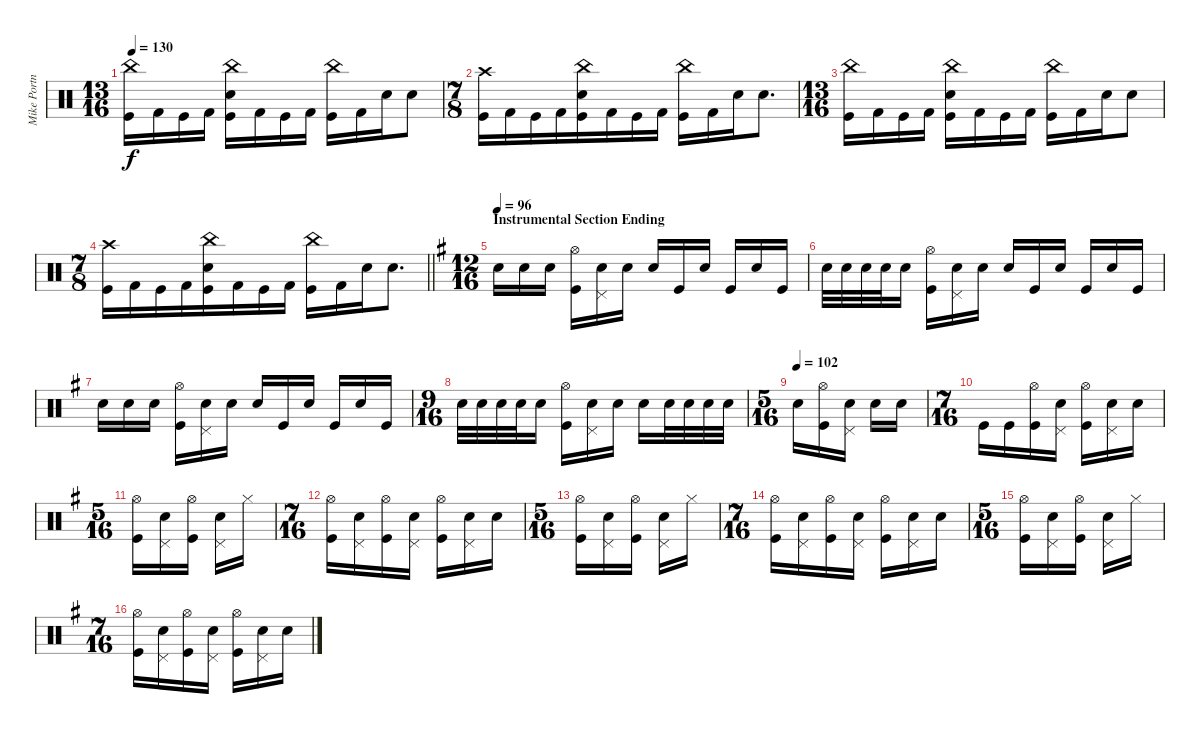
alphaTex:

\track ("Mike Portnoy" "Mike Portn") {instrument percussion}
\staff {score}
\articulation defaults
\ts (13 16)
\tempo 130
\clef neutral
\ks aminor
("China (hit)" "Kick (hit)").16{dy f} "Kick (hit) 2".16 "Kick (hit)".16 "Kick (hit) 2".16 ("China (hit)" "Kick (hit)" "Snare (hit) 2").16 "Kick (hit) 2".16 "Kick (hit)".16 "Kick (hit) 2".16 ("China (hit)" "Kick (hit)").16 "Kick (hit) 2".16 "Snare (hit) 2".16 "Snare (hit) 2".8 |
\ts (7 8)
("Crash high (hit)" "Kick (hit)").16 "Kick (hit) 2".16 "Kick (hit)".16 "Kick (hit) 2".16 ("China (hit)" "Kick (hit)" "Snare (hit) 2").16 "Kick (hit) 2".16 "Kick (hit)".16 "Kick (hit) 2".16 ("China (hit)" "Kick (hit)").16 "Kick (hit) 2".16 "Snare (hit) 2".16 "Snare (hit) 2".8{d} |
\ts (13 16)
("China (hit)" "Kick (hit)").16 "Kick (hit) 2".16 "Kick (hit)".16 "Kick (hit) 2".16 ("China (hit)" "Kick (hit)" "Snare (hit) 2").16 "Kick (hit) 2".16 "Kick (hit)".16 "Kick (hit) 2".16 ("China (hit)" "Kick (hit)").16 "Kick (hit) 2".16 "Snare (hit) 2".16 "Snare (hit) 2".8 |
\ts (7 8)
\barLineRight lightlight
("Crash high (hit)" "Kick (hit)").16 "Kick (hit) 2".16 "Kick (hit)".16 "Kick (hit) 2".16 ("China (hit)" "Kick (hit)" "Snare (hit) 2").16 "Kick (hit) 2".16 "Kick (hit)".16 "Kick (hit) 2".16 ("China (hit)" "Kick (hit)").16 "Kick (hit) 2".16 "Snare (hit) 2".16 "Snare (hit) 2".8{d} |
\ts (12 16)
\section ("" "Instrumental Section Ending")
\tempo 96
\ks eminor "Snare (hit) 2".16 "Snare (hit) 2".16 "Snare (hit) 2".16
("Hi-Hat (open)" "Kick (hit)").16 ("Snare (hit) 2" "Pedal Hi-Hat (hit)").16 "Snare (hit) 2".16 "Electric Snare (hit)".16 "Kick (hit)".16 "Electric Snare (hit)".16 "Kick (hit)".16 "Electric Snare (hit)".16 "Kick (hit)".16 |
"Snare (hit) 2".32 "Snare (hit) 2".32 "Snare (hit) 2".32 "Snare (hit) 2".32 "Snare (hit) 2".16 ("Hi-Hat (open)" "Kick (hit)").16 ("Snare (hit) 2" "Pedal Hi-Hat (hit)").16 "Snare (hit) 2".16 "Electric Snare (hit)".16 "Kick (hit)".16 "Electric Snare (hit)".16 "Kick (hit)".16 "Electric Snare (hit)".16 "Kick (hit)".16 |
"Snare (hit) 2".16 "Snare (hit) 2".16 "Snare (hit) 2".16 ("Hi-Hat (open)" "Kick (hit)").16 ("Snare (hit) 2" "Pedal Hi-Hat (hit)").16 "Snare (hit) 2".16 "Electric Snare (hit)".16 "Kick (hit)".16 "Electric Snare (hit)".16 "Kick (hit)".16 "Electric Snare (hit)".16 "Kick (hit)".16 |
\ts (9 16)
"Snare (hit) 2".32 "Snare (hit) 2".32 "Snare (hit) 2".32 "Snare (hit) 2".32 "Snare (hit) 2".16 ("Hi-Hat (open)" "Kick (hit)").16 ("Snare (hit) 2" "Pedal Hi-Hat (hit)").16 "Snare (hit) 2".16 "Electric Snare (hit)".16 "Snare (hit) 2".32 "Snare (hit) 2".32 "Snare (hit) 2".32 "Snare (hit) 2".32 |
\ts (5 16)
\tempo (102)
"Snare (hit) 2".16 ("Hi-Hat (open)" "Kick (hit)").16 ("Snare (hit) 2" "Pedal Hi-Hat (hit)").16 "Snare (hit) 2".16 "Electric Snare (hit)".16 |
\ts (7 16)
"Kick (hit)".16 "Kick (hit)".16 ("Hi-Hat (open)" "Kick (hit)").16 ("Electric Snare (hit)" "Pedal Hi-Hat (hit)").16 ("Hi-Hat (open)" "Kick (hit)").16 ("Electric Snare (hit)" "Pedal Hi-Hat (hit)").16 "Electric Snare (hit)".16 |
\ts (5 16)
("Hi-Hat (open)" "Kick (hit)").16 ("Electric Snare (hit)" "Pedal Hi-Hat (hit)").16 ("Hi-Hat (open)" "Kick (hit)").16 ("Electric Snare (hit)" "Pedal Hi-Hat (hit)").16 "Hi-Hat (closed)".16 |
\ts (7 16)
("Hi-Hat (open)" "Kick (hit)").16 ("Electric Snare (hit)" "Pedal Hi-Hat (hit)").16 ("Hi-Hat (open)" "Kick (hit)").16 ("Electric Snare (hit)" "Pedal Hi-Hat (hit)").16 ("Hi-Hat (open)" "Kick (hit)").16 ("Electric Snare (hit)" "Pedal Hi-Hat (hit)").16 "Electric Snare (hit)".16 |
\ts (5 16)
("Hi-Hat (open)" "Kick (hit)").16 ("Electric Snare (hit)" "Pedal Hi-Hat (hit)").16 ("Hi-Hat (open)" "Kick (hit)").16 ("Electric Snare (hit)" "Pedal Hi-Hat (hit)").16 "Hi-Hat (closed)".16 |
\ts (7 16)
("Hi-Hat (open)" "Kick (hit)").16 ("Electric Snare (hit)" "Pedal Hi-Hat (hit)").16 ("Hi-Hat (open)" "Kick (hit)").16 ("Electric Snare (hit)" "Pedal Hi-Hat (hit)").16 ("Hi-Hat (open)" "Kick (hit)").16 ("Electric Snare (hit)" "Pedal Hi-Hat (hit)").16 "Electric Snare (hit)".16 |
\ts (5 16)
("Hi-Hat (open)" "Kick (hit)").16 ("Electric Snare (hit)" "Pedal Hi-Hat (hit)").16 ("Hi-Hat (open)" "Kick (hit)").16 ("Electric Snare (hit)" "Pedal Hi-Hat (hit)").16 "Hi-Hat (closed)".16 |
\ts (7 16)
("Hi-Hat (open)" "Kick (hit)").16 ("Electric Snare (hit)" "Pedal Hi-Hat (hit)").16 ("Hi-Hat (open)" "Kick (hit)").16 ("Electric Snare (hit)" "Pedal Hi-Hat (hit)").16 ("Hi-Hat (open)" "Kick (hit)").16 ("Electric Snare (hit)" "Pedal Hi-Hat (hit)").16 "Electric Snare (hit)".16
